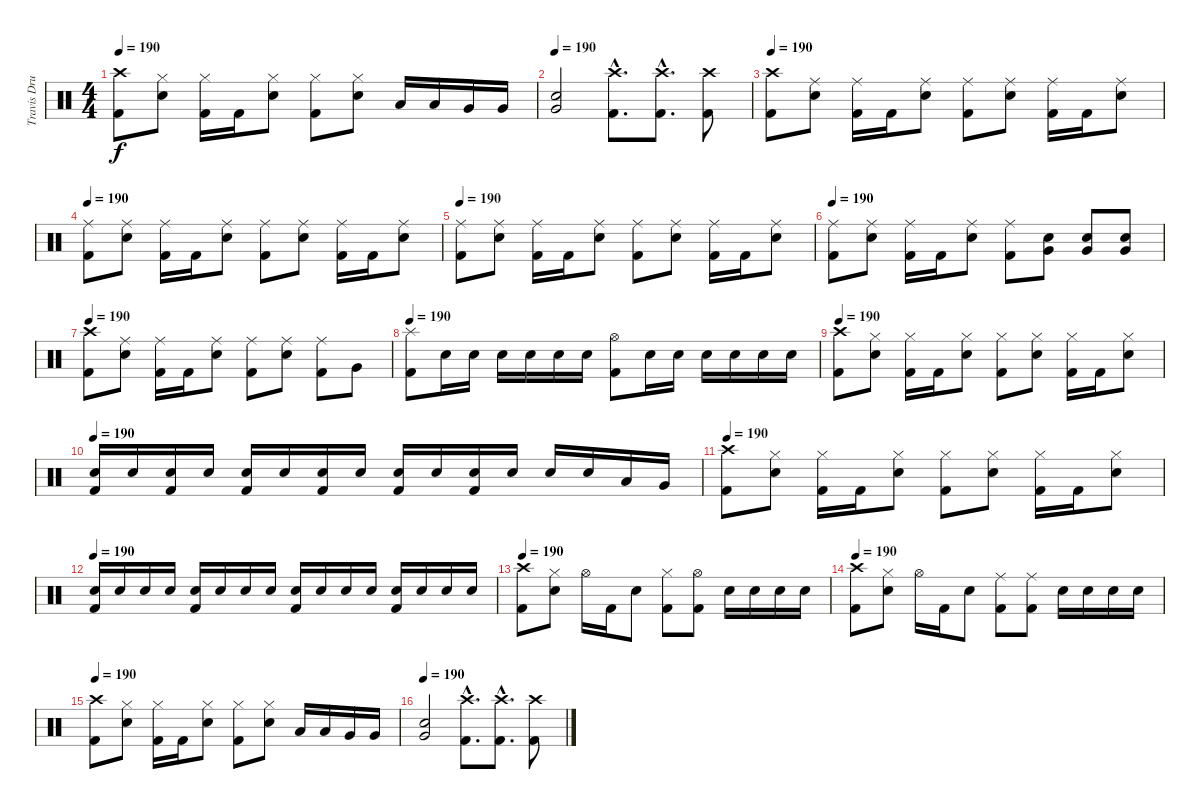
\track ("Travis Drums" "Travis Dru") {instrument percussion}
\staff {score}
\articulation defaults
\ts (4 4)
\tempo 190
\clef neutral
\ks c
("Crash high (hit)" "Kick (hit) 2").8{dy f} ("Hi-Hat (closed)" "Electric Snare (hit)").8 ("Hi-Hat (closed)" "Kick (hit) 2").16 "Kick (hit) 2".16 ("Hi-Hat (closed)" "Electric Snare (hit)").8 ("Hi-Hat (closed)" "Kick (hit) 2").8 ("Hi-Hat (closed)" "Electric Snare (hit)").8 "Low Tom (hit)".16 "Low Tom (hit)".16 "Very Low Tom (hit)".16 "Very Low Tom (hit)".16 |
\tempo 190
("Very Low Tom (hit)" "Electric Snare (hit)").2 ("Crash high (hit)"{hac} "Kick (hit) 2"{hac}).8{d} ("Crash high (hit)"{hac} "Kick (hit) 2"{hac}).8{d} ("Crash high (hit)" "Kick (hit) 2").8 |
\tempo 190
("Crash high (hit)" "Kick (hit) 2").8 ("Ride (middle)" "Electric Snare (hit)").8 ("Ride (middle)" "Kick (hit) 2").16 "Kick (hit) 2".16 ("Ride (middle)" "Electric Snare (hit)").8 ("Ride (middle)" "Kick (hit) 2").8 ("Ride (middle)" "Electric Snare (hit)").8 ("Ride (middle)" "Kick (hit) 2").16 "Kick (hit) 2".16 ("Ride (middle)" "Electric Snare (hit)").8 |
\tempo 190
("Ride (middle)" "Kick (hit) 2").8 ("Ride (middle)" "Electric Snare (hit)").8 ("Ride (middle)" "Kick (hit) 2").16 "Kick (hit) 2".16 ("Ride (middle)" "Electric Snare (hit)").8 ("Ride (middle)" "Kick (hit) 2").8 ("Ride (middle)" "Electric Snare (hit)").8 ("Ride (middle)" "Kick (hit) 2").16 "Kick (hit) 2".16 ("Ride (middle)" "Electric Snare (hit)").8 |
\tempo 190
("Ride (middle)" "Kick (hit) 2").8 ("Ride (middle)" "Electric Snare (hit)").8 ("Ride (middle)" "Kick (hit) 2").16 "Kick (hit) 2".16 ("Ride (middle)" "Electric Snare (hit)").8 ("Ride (middle)" "Kick (hit) 2").8 ("Ride (middle)" "Electric Snare (hit)").8 ("Ride (middle)" "Kick (hit) 2").16 "Kick (hit) 2".16 ("Ride (middle)" "Electric Snare (hit)").8 |
\tempo 190
("Ride (middle)" "Kick (hit) 2").8 ("Ride (middle)" "Electric Snare (hit)").8 ("Ride (middle)" "Kick (hit) 2").16 "Kick (hit) 2".16 ("Ride (middle)" "Electric Snare (hit)").8 ("Ride (middle)" "Kick (hit) 2").8 ("Very Low Tom (hit)" "Electric Snare (hit)").8 ("Very Low Tom (hit)" "Electric Snare (hit)").8 ("Very Low Tom (hit)" "Electric Snare (hit)").8 |
\tempo 190
("Crash high (hit)" "Kick (hit) 2").8 ("Ride (middle)" "Electric Snare (hit)").8 ("Ride (middle)" "Kick (hit) 2").16 "Kick (hit) 2".16 ("Ride (middle)" "Electric Snare (hit)").8 ("Ride (middle)" "Kick (hit) 2").8 ("Ride (middle)" "Electric Snare (hit)").8 ("Ride (middle)" "Kick (hit) 2").8 "Very Low Tom (hit)".8 |
\tempo 190
("Splash (hit)" "Kick (hit) 2").8 "Electric Snare (hit)".16 "Electric Snare (hit)".16 "Electric Snare (hit)".16 "Electric Snare (hit)".16 "Electric Snare (hit)".16 "Electric Snare (hit)".16 ("Hi-Hat (open)" "Kick (hit) 2").8 "Electric Snare (hit)".16 "Electric Snare (hit)".16 "Electric Snare (hit)".16 "Electric Snare (hit)".16 "Electric Snare (hit)".16 "Electric Snare (hit)".16 |
\tempo 190
("Crash high (hit)" "Kick (hit) 2").8 ("Hi-Hat (closed)" "Electric Snare (hit)").8 ("Hi-Hat (closed)" "Kick (hit) 2").16 "Kick (hit) 2".16 ("Hi-Hat (closed)" "Electric Snare (hit)").8 ("Hi-Hat (closed)" "Kick (hit) 2").8 ("Hi-Hat (closed)" "Electric Snare (hit)").8 ("Hi-Hat (closed)" "Kick (hit) 2").16 "Kick (hit) 2".16 ("Hi-Hat (closed)" "Electric Snare (hit)").8 |
\tempo 190
("Electric Snare (hit)" "Kick (hit) 2").16 "Electric Snare (hit)".16 ("Electric Snare (hit)" "Kick (hit) 2").16 "Electric Snare (hit)".16 ("Electric Snare (hit)" "Kick (hit) 2").16 "Electric Snare (hit)".16 ("Electric Snare (hit)" "Kick (hit) 2").16 "Electric Snare (hit)".16 ("Electric Snare (hit)" "Kick (hit) 2").16 "Electric Snare (hit)".16 ("Electric Snare (hit)" "Kick (hit) 2").16 "Electric Snare (hit)".16 "Electric Snare (hit)".16 "Electric Snare (hit)".16 "Low Tom (hit)".16 "Very Low Tom (hit)".16 |
\tempo 190
("Crash high (hit)" "Kick (hit) 2").8 ("Hi-Hat (closed)" "Electric Snare (hit)").8 ("Hi-Hat (closed)" "Kick (hit) 2").16 "Kick (hit) 2".16 ("Hi-Hat (closed)" "Electric Snare (hit)").8 ("Hi-Hat (closed)" "Kick (hit) 2").8 ("Hi-Hat (closed)" "Electric Snare (hit)").8 ("Hi-Hat (closed)" "Kick (hit) 2").16 "Kick (hit) 2".16 ("Hi-Hat (closed)" "Electric Snare (hit)").8 |
\tempo 190
("Electric Snare (hit)" "Kick (hit) 2").16 "Electric Snare (hit)".16 "Electric Snare (hit)".16 "Electric Snare (hit)".16 ("Electric Snare (hit)" "Kick (hit) 2").16 "Electric Snare (hit)".16 "Electric Snare (hit)".16 "Electric Snare (hit)".16 ("Electric Snare (hit)" "Kick (hit) 2").16 "Electric Snare (hit)".16 "Electric Snare (hit)".16 "Electric Snare (hit)".16 ("Electric Snare (hit)" "Kick (hit) 2").16 "Electric Snare (hit)".16 "Electric Snare (hit)".16 "Electric Snare (hit)".16 |
\tempo 190
("Crash high (hit)" "Kick (hit) 2").8 ("Hi-Hat (closed)" "Electric Snare (hit)").8 "Hi-Hat (open)".16 "Kick (hit) 2".16 "Electric Snare (hit)".8 ("Hi-Hat (closed)" "Kick (hit) 2").8 ("Hi-Hat (open)" "Kick (hit) 2").8 "Electric Snare (hit)".16 "Electric Snare (hit)".16 "Electric Snare (hit)".16 "Electric Snare (hit)".16 |
\tempo 190
("Crash high (hit)" "Kick (hit) 2").8 ("Hi-Hat (closed)" "Electric Snare (hit)").8 "Hi-Hat (open)".16 "Kick (hit) 2".16 "Electric Snare (hit)".8 ("Ride (middle)" "Kick (hit) 2").8 ("Ride (middle)" "Kick (hit) 2").8 "Electric Snare (hit)".16 "Electric Snare (hit)".16 "Electric Snare (hit)".16 "Electric Snare (hit)".16 |
\tempo 190
("Crash high (hit)" "Kick (hit) 2").8 ("Hi-Hat (closed)" "Electric Snare (hit)").8 ("Hi-Hat (closed)" "Kick (hit) 2").16 "Kick (hit) 2".16 ("Hi-Hat (closed)" "Electric Snare (hit)").8 ("Hi-Hat (closed)" "Kick (hit) 2").8 ("Hi-Hat (closed)" "Electric Snare (hit)").8 "Low Tom (hit)".16 "Low Tom (hit)".16 "Very Low Tom (hit)".16 "Very Low Tom (hit)".16 |
\tempo 190
("Very Low Tom (hit)" "Electric Snare (hit)").2 ("Crash high (hit)"{hac} "Kick (hit) 2"{hac}).8{d} ("Crash high (hit)"{hac} "Kick (hit) 2"{hac}).8{d} ("Crash high (hit)" "Kick (hit) 2").8
